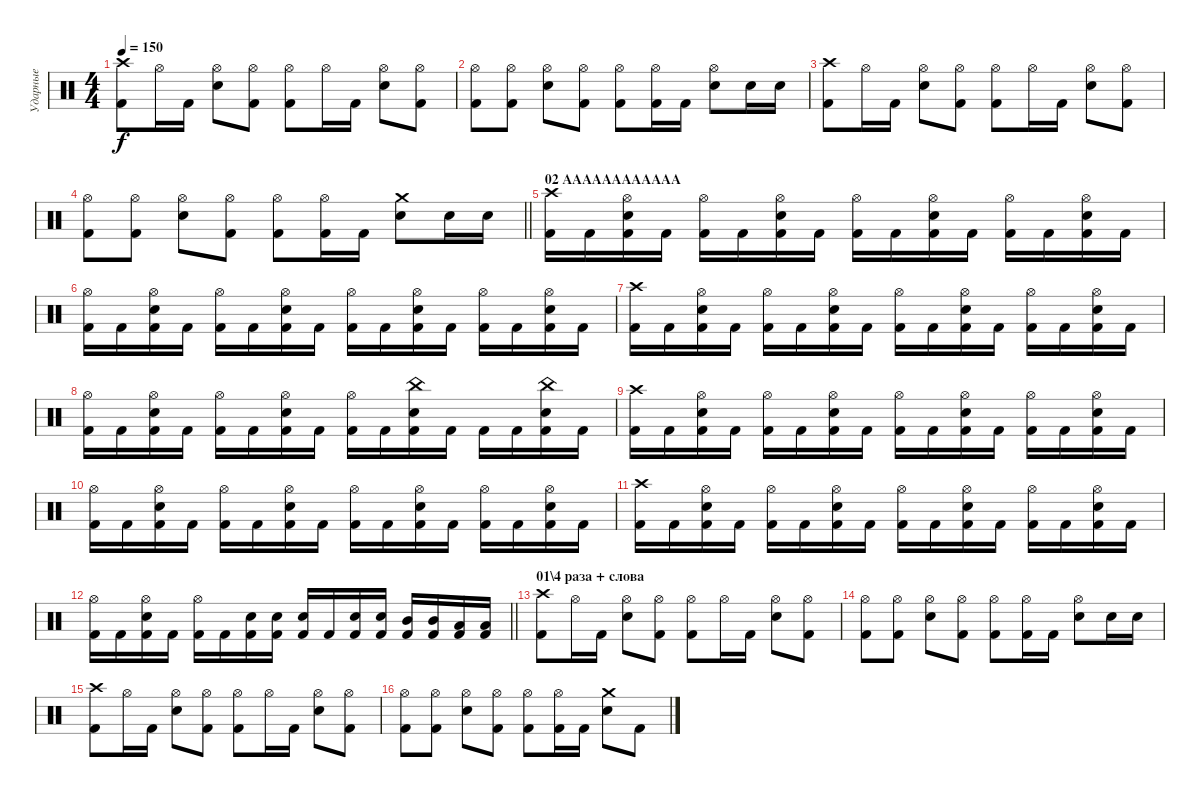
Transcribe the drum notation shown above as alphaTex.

\track ("Ударные" "Ударные") {instrument percussion}
\staff {score}
\articulation defaults
\ts (4 4)
\tempo 150
\clef neutral
\ks c
("Crash high (hit)" "Kick (hit) 2").8{dy f} "Hi-Hat (open)".16 "Kick (hit) 2".16 ("Hi-Hat (open)" "Electric Snare (hit)").8 ("Hi-Hat (open)" "Kick (hit) 2").8 ("Hi-Hat (open)" "Kick (hit) 2").8 "Hi-Hat (open)".16 "Kick (hit) 2".16 ("Hi-Hat (open)" "Electric Snare (hit)").8 ("Hi-Hat (open)" "Kick (hit) 2").8 |
("Hi-Hat (open)" "Kick (hit) 2").8 ("Hi-Hat (open)" "Kick (hit) 2").8 ("Hi-Hat (open)" "Electric Snare (hit)").8 ("Hi-Hat (open)" "Kick (hit) 2").8 ("Hi-Hat (open)" "Kick (hit) 2").8 ("Hi-Hat (open)" "Kick (hit) 2").16 "Kick (hit) 2".16 ("Hi-Hat (open)" "Electric Snare (hit)").8 "Electric Snare (hit)".16 "Electric Snare (hit)".16 |
("Crash high (hit)" "Kick (hit) 2").8 "Hi-Hat (open)".16 "Kick (hit) 2".16 ("Hi-Hat (open)" "Electric Snare (hit)").8 ("Hi-Hat (open)" "Kick (hit) 2").8 ("Hi-Hat (open)" "Kick (hit) 2").8 "Hi-Hat (open)".16 "Kick (hit) 2".16 ("Hi-Hat (open)" "Electric Snare (hit)").8 ("Hi-Hat (open)" "Kick (hit) 2").8 |
\barLineRight lightlight
("Hi-Hat (open)" "Kick (hit) 2").8 ("Hi-Hat (open)" "Kick (hit) 2").8 ("Hi-Hat (open)" "Electric Snare (hit)").8 ("Hi-Hat (open)" "Kick (hit) 2").8 ("Hi-Hat (open)" "Kick (hit) 2").8 ("Hi-Hat (open)" "Kick (hit) 2").16 "Kick (hit) 2".16 ("Crash medium (hit)" "Electric Snare (hit)").8 "Electric Snare (hit)".16 "Electric Snare (hit)".16 |
\section ("" "02 АААААААААААА")
("Crash high (hit)" "Kick (hit) 2").16 "Kick (hit) 2".16 ("Hi-Hat (open)" "Electric Snare (hit)" "Kick (hit) 2").16 "Kick (hit) 2".16 ("Hi-Hat (open)" "Kick (hit) 2").16 "Kick (hit) 2".16 ("Hi-Hat (open)" "Electric Snare (hit)" "Kick (hit) 2").16 "Kick (hit) 2".16 ("Hi-Hat (open)" "Kick (hit) 2").16 "Kick (hit) 2".16 ("Hi-Hat (open)" "Electric Snare (hit)" "Kick (hit) 2").16 "Kick (hit) 2".16 ("Hi-Hat (open)" "Kick (hit) 2").16 "Kick (hit) 2".16 ("Hi-Hat (open)" "Electric Snare (hit)" "Kick (hit) 2").16 "Kick (hit) 2".16 |
("Hi-Hat (open)" "Kick (hit) 2").16 "Kick (hit) 2".16 ("Hi-Hat (open)" "Electric Snare (hit)" "Kick (hit) 2").16 "Kick (hit) 2".16 ("Hi-Hat (open)" "Kick (hit) 2").16 "Kick (hit) 2".16 ("Hi-Hat (open)" "Electric Snare (hit)" "Kick (hit) 2").16 "Kick (hit) 2".16 ("Hi-Hat (open)" "Kick (hit) 2").16 "Kick (hit) 2".16 ("Hi-Hat (open)" "Electric Snare (hit)" "Kick (hit) 2").16 "Kick (hit) 2".16 ("Hi-Hat (open)" "Kick (hit) 2").16 "Kick (hit) 2".16 ("Hi-Hat (open)" "Electric Snare (hit)" "Kick (hit) 2").16 "Kick (hit) 2".16 |
("Crash high (hit)" "Kick (hit) 2").16 "Kick (hit) 2".16 ("Hi-Hat (open)" "Electric Snare (hit)" "Kick (hit) 2").16 "Kick (hit) 2".16 ("Hi-Hat (open)" "Kick (hit) 2").16 "Kick (hit) 2".16 ("Hi-Hat (open)" "Electric Snare (hit)" "Kick (hit) 2").16 "Kick (hit) 2".16 ("Hi-Hat (open)" "Kick (hit) 2").16 "Kick (hit) 2".16 ("Hi-Hat (open)" "Electric Snare (hit)" "Kick (hit) 2").16 "Kick (hit) 2".16 ("Hi-Hat (open)" "Kick (hit) 2").16 "Kick (hit) 2".16 ("Hi-Hat (open)" "Electric Snare (hit)" "Kick (hit) 2").16 "Kick (hit) 2".16 |
("Hi-Hat (open)" "Kick (hit) 2").16 "Kick (hit) 2".16 ("Hi-Hat (open)" "Electric Snare (hit)" "Kick (hit) 2").16 "Kick (hit) 2".16 ("Hi-Hat (open)" "Kick (hit) 2").16 "Kick (hit) 2".16 ("Hi-Hat (open)" "Electric Snare (hit)" "Kick (hit) 2").16 "Kick (hit) 2".16 ("Hi-Hat (open)" "Kick (hit) 2").16 "Kick (hit) 2".16 ("China (hit)" "Electric Snare (hit)" "Kick (hit) 2").16 "Kick (hit) 2".16 "Kick (hit) 2".16 "Kick (hit) 2".16 ("China (hit)" "Electric Snare (hit)" "Kick (hit) 2").16 "Kick (hit) 2".16 |
("Crash high (hit)" "Kick (hit) 2").16 "Kick (hit) 2".16 ("Hi-Hat (open)" "Electric Snare (hit)" "Kick (hit) 2").16 "Kick (hit) 2".16 ("Hi-Hat (open)" "Kick (hit) 2").16 "Kick (hit) 2".16 ("Hi-Hat (open)" "Electric Snare (hit)" "Kick (hit) 2").16 "Kick (hit) 2".16 ("Hi-Hat (open)" "Kick (hit) 2").16 "Kick (hit) 2".16 ("Hi-Hat (open)" "Electric Snare (hit)" "Kick (hit) 2").16 "Kick (hit) 2".16 ("Hi-Hat (open)" "Kick (hit) 2").16 "Kick (hit) 2".16 ("Hi-Hat (open)" "Electric Snare (hit)" "Kick (hit) 2").16 "Kick (hit) 2".16 |
("Hi-Hat (open)" "Kick (hit) 2").16 "Kick (hit) 2".16 ("Hi-Hat (open)" "Electric Snare (hit)" "Kick (hit) 2").16 "Kick (hit) 2".16 ("Hi-Hat (open)" "Kick (hit) 2").16 "Kick (hit) 2".16 ("Hi-Hat (open)" "Electric Snare (hit)" "Kick (hit) 2").16 "Kick (hit) 2".16 ("Hi-Hat (open)" "Kick (hit) 2").16 "Kick (hit) 2".16 ("Hi-Hat (open)" "Electric Snare (hit)" "Kick (hit) 2").16 "Kick (hit) 2".16 ("Hi-Hat (open)" "Kick (hit) 2").16 "Kick (hit) 2".16 ("Hi-Hat (open)" "Electric Snare (hit)" "Kick (hit) 2").16 "Kick (hit) 2".16 |
("Crash high (hit)" "Kick (hit) 2").16 "Kick (hit) 2".16 ("Hi-Hat (open)" "Electric Snare (hit)" "Kick (hit) 2").16 "Kick (hit) 2".16 ("Hi-Hat (open)" "Kick (hit) 2").16 "Kick (hit) 2".16 ("Hi-Hat (open)" "Electric Snare (hit)" "Kick (hit) 2").16 "Kick (hit) 2".16 ("Hi-Hat (open)" "Kick (hit) 2").16 "Kick (hit) 2".16 ("Hi-Hat (open)" "Electric Snare (hit)" "Kick (hit) 2").16 "Kick (hit) 2".16 ("Hi-Hat (open)" "Kick (hit) 2").16 "Kick (hit) 2".16 ("Hi-Hat (open)" "Electric Snare (hit)" "Kick (hit) 2").16 "Kick (hit) 2".16 |
\barLineRight lightlight
("Hi-Hat (open)" "Kick (hit) 2").16 "Kick (hit) 2".16 ("Hi-Hat (open)" "Electric Snare (hit)" "Kick (hit) 2").16 "Kick (hit) 2".16 ("Hi-Hat (open)" "Kick (hit) 2").16 "Kick (hit) 2".16 ("Electric Snare (hit)" "Kick (hit) 2").16 ("Electric Snare (hit)" "Kick (hit) 2").16 ("Electric Snare (hit)" "Kick (hit) 2").16 "Kick (hit) 2".16 ("Electric Snare (hit)" "Kick (hit) 2").16 ("Electric Snare (hit)" "Kick (hit) 2").16 ("Mid Tom (hit)" "Kick (hit) 2").16 ("Mid Tom (hit)" "Kick (hit) 2").16 ("Low Tom (hit)" "Kick (hit) 2").16 ("Low Tom (hit)" "Kick (hit) 2").16 |
\section ("" "01\\4 раза + слова")
("Crash high (hit)" "Kick (hit) 2").8 "Hi-Hat (open)".16 "Kick (hit) 2".16 ("Hi-Hat (open)" "Electric Snare (hit)").8 ("Hi-Hat (open)" "Kick (hit) 2").8 ("Hi-Hat (open)" "Kick (hit) 2").8 "Hi-Hat (open)".16 "Kick (hit) 2".16 ("Hi-Hat (open)" "Electric Snare (hit)").8 ("Hi-Hat (open)" "Kick (hit) 2").8 |
("Hi-Hat (open)" "Kick (hit) 2").8 ("Hi-Hat (open)" "Kick (hit) 2").8 ("Hi-Hat (open)" "Electric Snare (hit)").8 ("Hi-Hat (open)" "Kick (hit) 2").8 ("Hi-Hat (open)" "Kick (hit) 2").8 ("Hi-Hat (open)" "Kick (hit) 2").16 "Kick (hit) 2".16 ("Hi-Hat (open)" "Electric Snare (hit)").8 "Electric Snare (hit)".16 "Electric Snare (hit)".16 |
("Crash high (hit)" "Kick (hit) 2").8 "Hi-Hat (open)".16 "Kick (hit) 2".16 ("Hi-Hat (open)" "Electric Snare (hit)").8 ("Hi-Hat (open)" "Kick (hit) 2").8 ("Hi-Hat (open)" "Kick (hit) 2").8 "Hi-Hat (open)".16 "Kick (hit) 2".16 ("Hi-Hat (open)" "Electric Snare (hit)").8 ("Hi-Hat (open)" "Kick (hit) 2").8 |
("Hi-Hat (open)" "Kick (hit) 2").8 ("Hi-Hat (open)" "Kick (hit) 2").8 ("Hi-Hat (open)" "Electric Snare (hit)").8 ("Hi-Hat (open)" "Kick (hit) 2").8 ("Hi-Hat (open)" "Kick (hit) 2").8 ("Hi-Hat (open)" "Kick (hit) 2").16 "Kick (hit) 2".16 ("Crash medium (hit)" "Electric Snare (hit)").8 "Kick (hit) 2".8
